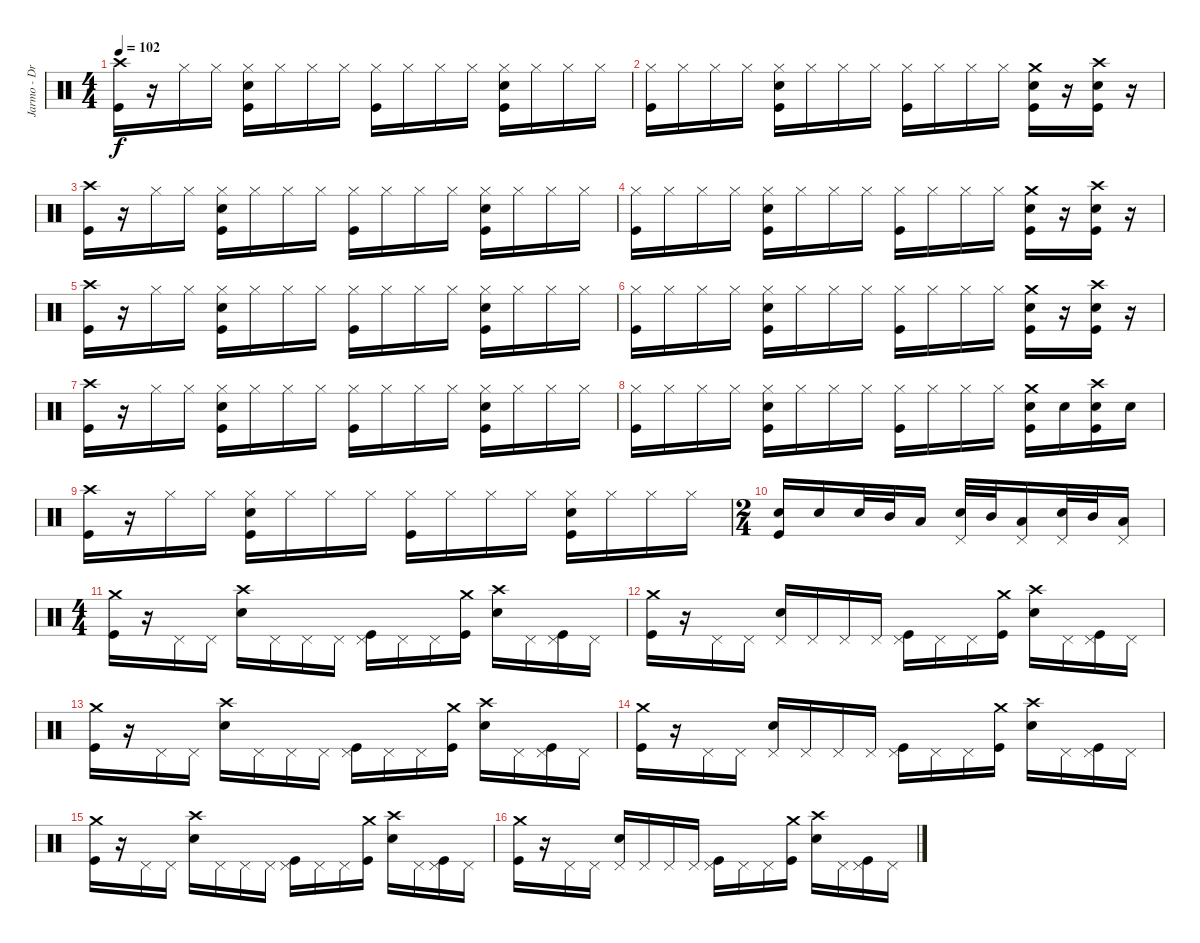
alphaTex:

\track ("Jarmo - Drums" "Jarmo - Dr") {instrument percussion}
\staff {score}
\articulation defaults
\ts (4 4)
\tempo 102
\clef neutral
\ks c
("Kick (hit)" "Crash high (hit)").16{dy f} r.16 "Hi-Hat (closed)".16 "Hi-Hat (closed)".16 ("Kick (hit)" "Electric Snare (hit)" "Hi-Hat (closed)").16 "Hi-Hat (closed)".16 "Hi-Hat (closed)".16 "Hi-Hat (closed)".16 ("Kick (hit)" "Hi-Hat (closed)").16 "Hi-Hat (closed)".16 "Hi-Hat (closed)".16 "Hi-Hat (closed)".16 ("Kick (hit)" "Electric Snare (hit)" "Hi-Hat (closed)").16 "Hi-Hat (closed)".16 "Hi-Hat (closed)".16 "Hi-Hat (closed)".16 |
("Kick (hit)" "Hi-Hat (closed)").16 "Hi-Hat (closed)".16 "Hi-Hat (closed)".16 "Hi-Hat (closed)".16 ("Kick (hit)" "Electric Snare (hit)" "Hi-Hat (closed)").16 "Hi-Hat (closed)".16 "Hi-Hat (closed)".16 "Hi-Hat (closed)".16 ("Kick (hit)" "Hi-Hat (closed)").16 "Hi-Hat (closed)".16 "Hi-Hat (closed)".16 "Hi-Hat (closed)".16 ("Kick (hit)" "Electric Snare (hit)" "Crash medium (hit)").16 r.16 ("Kick (hit)" "Electric Snare (hit)" "Crash high (hit)").16 r.16 |
("Kick (hit)" "Crash high (hit)").16 r.16 "Hi-Hat (closed)".16 "Hi-Hat (closed)".16 ("Kick (hit)" "Electric Snare (hit)" "Hi-Hat (closed)").16 "Hi-Hat (closed)".16 "Hi-Hat (closed)".16 "Hi-Hat (closed)".16 ("Kick (hit)" "Hi-Hat (closed)").16 "Hi-Hat (closed)".16 "Hi-Hat (closed)".16 "Hi-Hat (closed)".16 ("Kick (hit)" "Electric Snare (hit)" "Hi-Hat (closed)").16 "Hi-Hat (closed)".16 "Hi-Hat (closed)".16 "Hi-Hat (closed)".16 |
("Kick (hit)" "Hi-Hat (closed)").16 "Hi-Hat (closed)".16 "Hi-Hat (closed)".16 "Hi-Hat (closed)".16 ("Kick (hit)" "Electric Snare (hit)" "Hi-Hat (closed)").16 "Hi-Hat (closed)".16 "Hi-Hat (closed)".16 "Hi-Hat (closed)".16 ("Kick (hit)" "Hi-Hat (closed)").16 "Hi-Hat (closed)".16 "Hi-Hat (closed)".16 "Hi-Hat (closed)".16 ("Kick (hit)" "Electric Snare (hit)" "Crash medium (hit)").16 r.16 ("Kick (hit)" "Electric Snare (hit)" "Crash high (hit)").16 r.16 |
("Kick (hit)" "Crash high (hit)").16 r.16 "Hi-Hat (closed)".16 "Hi-Hat (closed)".16 ("Kick (hit)" "Electric Snare (hit)" "Hi-Hat (closed)").16 "Hi-Hat (closed)".16 "Hi-Hat (closed)".16 "Hi-Hat (closed)".16 ("Kick (hit)" "Hi-Hat (closed)").16 "Hi-Hat (closed)".16 "Hi-Hat (closed)".16 "Hi-Hat (closed)".16 ("Kick (hit)" "Electric Snare (hit)" "Hi-Hat (closed)").16 "Hi-Hat (closed)".16 "Hi-Hat (closed)".16 "Hi-Hat (closed)".16 |
("Kick (hit)" "Hi-Hat (closed)").16 "Hi-Hat (closed)".16 "Hi-Hat (closed)".16 "Hi-Hat (closed)".16 ("Kick (hit)" "Electric Snare (hit)" "Hi-Hat (closed)").16 "Hi-Hat (closed)".16 "Hi-Hat (closed)".16 "Hi-Hat (closed)".16 ("Kick (hit)" "Hi-Hat (closed)").16 "Hi-Hat (closed)".16 "Hi-Hat (closed)".16 "Hi-Hat (closed)".16 ("Kick (hit)" "Electric Snare (hit)" "Crash medium (hit)").16 r.16 ("Kick (hit)" "Electric Snare (hit)" "Crash high (hit)").16 r.16 |
("Kick (hit)" "Crash high (hit)").16 r.16 "Hi-Hat (closed)".16 "Hi-Hat (closed)".16 ("Kick (hit)" "Electric Snare (hit)" "Hi-Hat (closed)").16 "Hi-Hat (closed)".16 "Hi-Hat (closed)".16 "Hi-Hat (closed)".16 ("Kick (hit)" "Hi-Hat (closed)").16 "Hi-Hat (closed)".16 "Hi-Hat (closed)".16 "Hi-Hat (closed)".16 ("Kick (hit)" "Electric Snare (hit)" "Hi-Hat (closed)").16 "Hi-Hat (closed)".16 "Hi-Hat (closed)".16 "Hi-Hat (closed)".16 |
("Kick (hit)" "Hi-Hat (closed)").16 "Hi-Hat (closed)".16 "Hi-Hat (closed)".16 "Hi-Hat (closed)".16 ("Kick (hit)" "Electric Snare (hit)" "Hi-Hat (closed)").16 "Hi-Hat (closed)".16 "Hi-Hat (closed)".16 "Hi-Hat (closed)".16 ("Kick (hit)" "Hi-Hat (closed)").16 "Hi-Hat (closed)".16 "Hi-Hat (closed)".16 "Hi-Hat (closed)".16 ("Kick (hit)" "Electric Snare (hit)" "Crash medium (hit)").16 "Electric Snare (hit)".16 ("Kick (hit)" "Electric Snare (hit)" "Crash high (hit)").16 "Electric Snare (hit)".16 |
("Kick (hit)" "Crash high (hit)").16 r.16 "Hi-Hat (closed)".16 "Hi-Hat (closed)".16 ("Kick (hit)" "Electric Snare (hit)" "Hi-Hat (closed)").16 "Hi-Hat (closed)".16 "Hi-Hat (closed)".16 "Hi-Hat (closed)".16 ("Kick (hit)" "Hi-Hat (closed)").16 "Hi-Hat (closed)".16 "Hi-Hat (closed)".16 "Hi-Hat (closed)".16 ("Kick (hit)" "Electric Snare (hit)" "Hi-Hat (closed)").16 "Hi-Hat (closed)".16 "Hi-Hat (closed)".16 "Hi-Hat (closed)".16 |
\ts (2 4)
("Kick (hit)" "Electric Snare (hit)").16 "Electric Snare (hit)".16 "Electric Snare (hit)".32 "Mid Tom (hit)".32 "Low Tom (hit)".16 ("Pedal Hi-Hat (hit)" "Electric Snare (hit)").32 "Mid Tom (hit)".32 ("Pedal Hi-Hat (hit)" "Low Tom (hit)").16 ("Pedal Hi-Hat (hit)" "Electric Snare (hit)").32 "Mid Tom (hit)".32 ("Pedal Hi-Hat (hit)" "Low Tom (hit)").16 |
\ts (4 4)
("Crash medium (hit)" "Kick (hit)").16 r.16 "Pedal Hi-Hat (hit)".16 "Pedal Hi-Hat (hit)".16 ("Crash high (hit)" "Electric Snare (hit)").16 "Pedal Hi-Hat (hit)".16 "Pedal Hi-Hat (hit)".16 "Pedal Hi-Hat (hit)".16 ("Pedal Hi-Hat (hit)" "Kick (hit)").16 "Pedal Hi-Hat (hit)".16 "Pedal Hi-Hat (hit)".16 ("Crash medium (hit)" "Kick (hit)").16 ("Crash high (hit)" "Electric Snare (hit)").16 "Pedal Hi-Hat (hit)".16 ("Pedal Hi-Hat (hit)" "Kick (hit)").16 "Pedal Hi-Hat (hit)".16 |
("Crash medium (hit)" "Kick (hit)").16 r.16 "Pedal Hi-Hat (hit)".16 "Pedal Hi-Hat (hit)".16 ("Pedal Hi-Hat (hit)" "Electric Snare (hit)").16 "Pedal Hi-Hat (hit)".16 "Pedal Hi-Hat (hit)".16 "Pedal Hi-Hat (hit)".16 ("Pedal Hi-Hat (hit)" "Kick (hit)").16 "Pedal Hi-Hat (hit)".16 "Pedal Hi-Hat (hit)".16 ("Crash medium (hit)" "Kick (hit)").16 ("Crash high (hit)" "Electric Snare (hit)").16 "Pedal Hi-Hat (hit)".16 ("Pedal Hi-Hat (hit)" "Kick (hit)").16 "Pedal Hi-Hat (hit)".16 |
("Crash medium (hit)" "Kick (hit)").16 r.16 "Pedal Hi-Hat (hit)".16 "Pedal Hi-Hat (hit)".16 ("Crash high (hit)" "Electric Snare (hit)").16 "Pedal Hi-Hat (hit)".16 "Pedal Hi-Hat (hit)".16 "Pedal Hi-Hat (hit)".16 ("Pedal Hi-Hat (hit)" "Kick (hit)").16 "Pedal Hi-Hat (hit)".16 "Pedal Hi-Hat (hit)".16 ("Crash medium (hit)" "Kick (hit)").16 ("Crash high (hit)" "Electric Snare (hit)").16 "Pedal Hi-Hat (hit)".16 ("Pedal Hi-Hat (hit)" "Kick (hit)").16 "Pedal Hi-Hat (hit)".16 |
("Crash medium (hit)" "Kick (hit)").16 r.16 "Pedal Hi-Hat (hit)".16 "Pedal Hi-Hat (hit)".16 ("Pedal Hi-Hat (hit)" "Electric Snare (hit)").16 "Pedal Hi-Hat (hit)".16 "Pedal Hi-Hat (hit)".16 "Pedal Hi-Hat (hit)".16 ("Pedal Hi-Hat (hit)" "Kick (hit)").16 "Pedal Hi-Hat (hit)".16 "Pedal Hi-Hat (hit)".16 ("Crash medium (hit)" "Kick (hit)").16 ("Crash high (hit)" "Electric Snare (hit)").16 "Pedal Hi-Hat (hit)".16 ("Pedal Hi-Hat (hit)" "Kick (hit)").16 "Pedal Hi-Hat (hit)".16 |
("Crash medium (hit)" "Kick (hit)").16 r.16 "Pedal Hi-Hat (hit)".16 "Pedal Hi-Hat (hit)".16 ("Crash high (hit)" "Electric Snare (hit)").16 "Pedal Hi-Hat (hit)".16 "Pedal Hi-Hat (hit)".16 "Pedal Hi-Hat (hit)".16 ("Pedal Hi-Hat (hit)" "Kick (hit)").16 "Pedal Hi-Hat (hit)".16 "Pedal Hi-Hat (hit)".16 ("Crash medium (hit)" "Kick (hit)").16 ("Crash high (hit)" "Electric Snare (hit)").16 "Pedal Hi-Hat (hit)".16 ("Pedal Hi-Hat (hit)" "Kick (hit)").16 "Pedal Hi-Hat (hit)".16 |
("Crash medium (hit)" "Kick (hit)").16 r.16 "Pedal Hi-Hat (hit)".16 "Pedal Hi-Hat (hit)".16 ("Pedal Hi-Hat (hit)" "Electric Snare (hit)").16 "Pedal Hi-Hat (hit)".16 "Pedal Hi-Hat (hit)".16 "Pedal Hi-Hat (hit)".16 ("Pedal Hi-Hat (hit)" "Kick (hit)").16 "Pedal Hi-Hat (hit)".16 "Pedal Hi-Hat (hit)".16 ("Crash medium (hit)" "Kick (hit)").16 ("Crash high (hit)" "Electric Snare (hit)").16 "Pedal Hi-Hat (hit)".16 ("Pedal Hi-Hat (hit)" "Kick (hit)").16 "Pedal Hi-Hat (hit)".16
